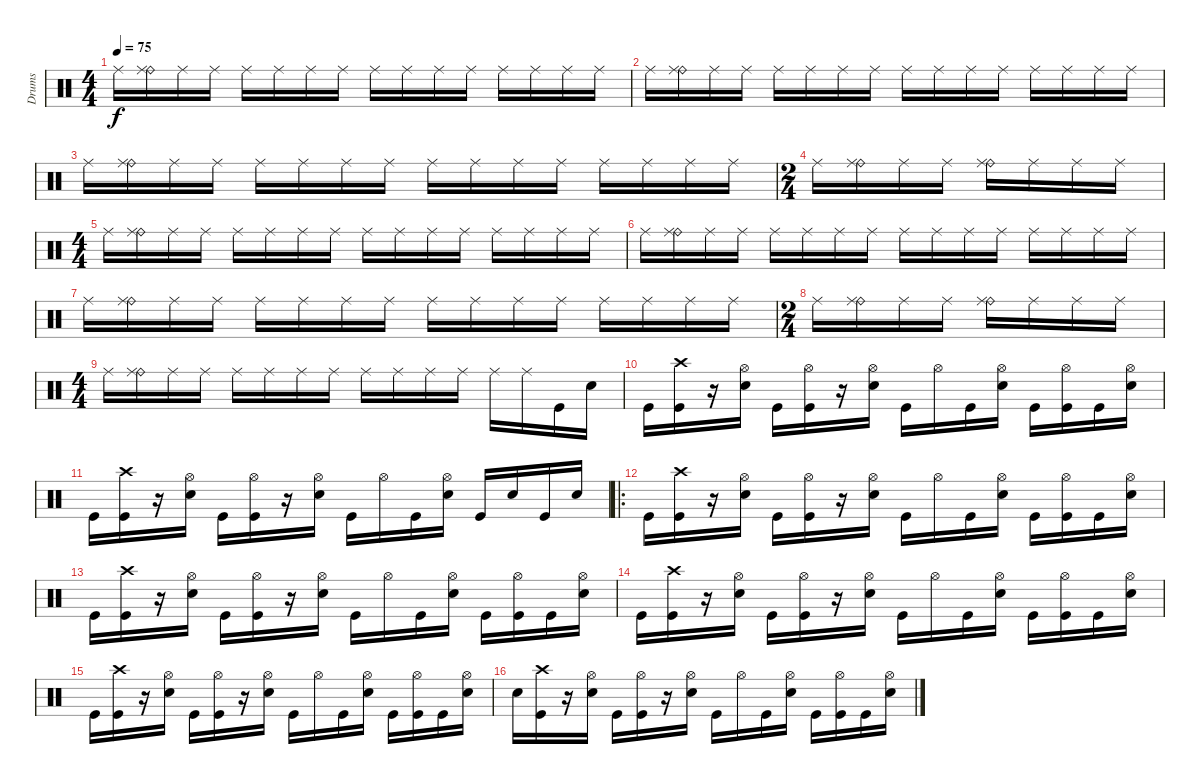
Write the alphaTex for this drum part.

\track ("Drums" "Drums") {instrument percussion}
\staff {score}
\articulation defaults
\ts (4 4)
\tempo 75
\clef neutral
\ks c "Ride (middle)".16{dy f}
("Ride (bell)" "Ride (middle)").16 "Ride (middle)".16 "Ride (middle)".16 "Ride (middle)".16 "Ride (middle)".16 "Ride (middle)".16 "Ride (middle)".16 "Ride (middle)".16 "Ride (middle)".16 "Ride (middle)".16 "Ride (middle)".16 "Ride (middle)".16 "Ride (middle)".16 "Ride (middle)".16 "Ride (middle)".16 |
"Ride (middle)".16 ("Ride (bell)" "Ride (middle)").16 "Ride (middle)".16 "Ride (middle)".16 "Ride (middle)".16 "Ride (middle)".16 "Ride (middle)".16 "Ride (middle)".16 "Ride (middle)".16 "Ride (middle)".16 "Ride (middle)".16 "Ride (middle)".16 "Ride (middle)".16 "Ride (middle)".16 "Ride (middle)".16 "Ride (middle)".16 |
"Ride (middle)".16 ("Ride (bell)" "Ride (middle)").16 "Ride (middle)".16 "Ride (middle)".16 "Ride (middle)".16 "Ride (middle)".16 "Ride (middle)".16 "Ride (middle)".16 "Ride (middle)".16 "Ride (middle)".16 "Ride (middle)".16 "Ride (middle)".16 "Ride (middle)".16 "Ride (middle)".16 "Ride (middle)".16 "Ride (middle)".16 |
\ts (2 4)
"Ride (middle)".16 ("Ride (bell)" "Ride (middle)").16 "Ride (middle)".16 "Ride (middle)".16 ("Ride (bell)" "Ride (middle)").16 "Ride (middle)".16 "Ride (middle)".16 "Ride (middle)".16 |
\ts (4 4)
"Ride (middle)".16 ("Ride (bell)" "Ride (middle)").16 "Ride (middle)".16 "Ride (middle)".16 "Ride (middle)".16 "Ride (middle)".16 "Ride (middle)".16 "Ride (middle)".16 "Ride (middle)".16 "Ride (middle)".16 "Ride (middle)".16 "Ride (middle)".16 "Ride (middle)".16 "Ride (middle)".16 "Ride (middle)".16 "Ride (middle)".16 |
"Ride (middle)".16 ("Ride (bell)" "Ride (middle)").16 "Ride (middle)".16 "Ride (middle)".16 "Ride (middle)".16 "Ride (middle)".16 "Ride (middle)".16 "Ride (middle)".16 "Ride (middle)".16 "Ride (middle)".16 "Ride (middle)".16 "Ride (middle)".16 "Ride (middle)".16 "Ride (middle)".16 "Ride (middle)".16 "Ride (middle)".16 |
"Ride (middle)".16 ("Ride (bell)" "Ride (middle)").16 "Ride (middle)".16 "Ride (middle)".16 "Ride (middle)".16 "Ride (middle)".16 "Ride (middle)".16 "Ride (middle)".16 "Ride (middle)".16 "Ride (middle)".16 "Ride (middle)".16 "Ride (middle)".16 "Ride (middle)".16 "Ride (middle)".16 "Ride (middle)".16 "Ride (middle)".16 |
\ts (2 4)
"Ride (middle)".16 ("Ride (bell)" "Ride (middle)").16 "Ride (middle)".16 "Ride (middle)".16 ("Ride (bell)" "Ride (middle)").16 "Ride (middle)".16 "Ride (middle)".16 "Ride (middle)".16 |
\ts (4 4)
"Ride (middle)".16 ("Ride (bell)" "Ride (middle)").16 "Ride (middle)".16 "Ride (middle)".16 "Ride (middle)".16 "Ride (middle)".16 "Ride (middle)".16 "Ride (middle)".16 "Ride (middle)".16 "Ride (middle)".16 "Ride (middle)".16 "Ride (middle)".16 "Ride (middle)".16 "Ride (middle)".16 "Kick (hit)".16 "Snare (hit) 2".16 |
"Kick (hit)".16 ("Crash high (hit)" "Kick (hit)").16 r.16 ("Hi-Hat (open)" "Snare (hit) 2").16 "Kick (hit)".16 ("Hi-Hat (open)" "Kick (hit)").16 r.16 ("Hi-Hat (open)" "Snare (hit) 2").16 "Kick (hit)".16 "Hi-Hat (open)".16 "Kick (hit)".16 ("Hi-Hat (open)" "Snare (hit) 2").16 "Kick (hit)".16 ("Hi-Hat (open)" "Kick (hit)").16 "Kick (hit)".16 ("Hi-Hat (open)" "Snare (hit) 2").16 |
"Kick (hit)".16 ("Crash high (hit)" "Kick (hit)").16 r.16 ("Hi-Hat (open)" "Snare (hit) 2").16 "Kick (hit)".16 ("Hi-Hat (open)" "Kick (hit)").16 r.16 ("Hi-Hat (open)" "Snare (hit) 2").16 "Kick (hit)".16 "Hi-Hat (open)".16 "Kick (hit)".16 ("Hi-Hat (open)" "Snare (hit) 2").16 "Kick (hit)".16 "Snare (hit) 2".16 "Kick (hit)".16 "Snare (hit) 2".16 |
\ro "Kick (hit)".16
("Crash high (hit)" "Kick (hit)").16 r.16 ("Hi-Hat (open)" "Snare (hit) 2").16 "Kick (hit)".16 ("Hi-Hat (open)" "Kick (hit)").16 r.16 ("Hi-Hat (open)" "Snare (hit) 2").16 "Kick (hit)".16 "Hi-Hat (open)".16 "Kick (hit)".16 ("Hi-Hat (open)" "Snare (hit) 2").16 "Kick (hit)".16 ("Hi-Hat (open)" "Kick (hit)").16 "Kick (hit)".16 ("Hi-Hat (open)" "Snare (hit) 2").16 |
"Kick (hit)".16 ("Crash high (hit)" "Kick (hit)").16 r.16 ("Hi-Hat (open)" "Snare (hit) 2").16 "Kick (hit)".16 ("Hi-Hat (open)" "Kick (hit)").16 r.16 ("Hi-Hat (open)" "Snare (hit) 2").16 "Kick (hit)".16 "Hi-Hat (open)".16 "Kick (hit)".16 ("Hi-Hat (open)" "Snare (hit) 2").16 "Kick (hit)".16 ("Hi-Hat (open)" "Kick (hit)").16 "Kick (hit)".16 ("Hi-Hat (open)" "Snare (hit) 2").16 |
"Kick (hit)".16 ("Crash high (hit)" "Kick (hit)").16 r.16 ("Hi-Hat (open)" "Snare (hit) 2").16 "Kick (hit)".16 ("Hi-Hat (open)" "Kick (hit)").16 r.16 ("Hi-Hat (open)" "Snare (hit) 2").16 "Kick (hit)".16 "Hi-Hat (open)".16 "Kick (hit)".16 ("Hi-Hat (open)" "Snare (hit) 2").16 "Kick (hit)".16 ("Hi-Hat (open)" "Kick (hit)").16 "Kick (hit)".16 ("Hi-Hat (open)" "Snare (hit) 2").16 |
"Kick (hit)".16 ("Crash high (hit)" "Kick (hit)").16 r.16 ("Hi-Hat (open)" "Snare (hit) 2").16 "Kick (hit)".16 ("Hi-Hat (open)" "Kick (hit)").16 r.16 ("Hi-Hat (open)" "Snare (hit) 2").16 "Kick (hit)".16 "Hi-Hat (open)".16 "Kick (hit)".16 ("Hi-Hat (open)" "Snare (hit) 2").16 "Kick (hit)".16 ("Hi-Hat (open)" "Kick (hit)").16 "Kick (hit)".16 ("Hi-Hat (open)" "Snare (hit) 2").16 |
"Snare (hit)".16 ("Crash high (hit)" "Kick (hit)").16 r.16 ("Hi-Hat (open)" "Snare (hit) 2").16 "Kick (hit)".16 ("Hi-Hat (open)" "Kick (hit)").16 r.16 ("Hi-Hat (open)" "Snare (hit) 2").16 "Kick (hit)".16 "Hi-Hat (open)".16 "Kick (hit)".16 ("Hi-Hat (open)" "Snare (hit) 2").16 "Kick (hit)".16 ("Hi-Hat (open)" "Kick (hit)").16 "Kick (hit)".16 ("Hi-Hat (open)" "Snare (hit) 2").16
